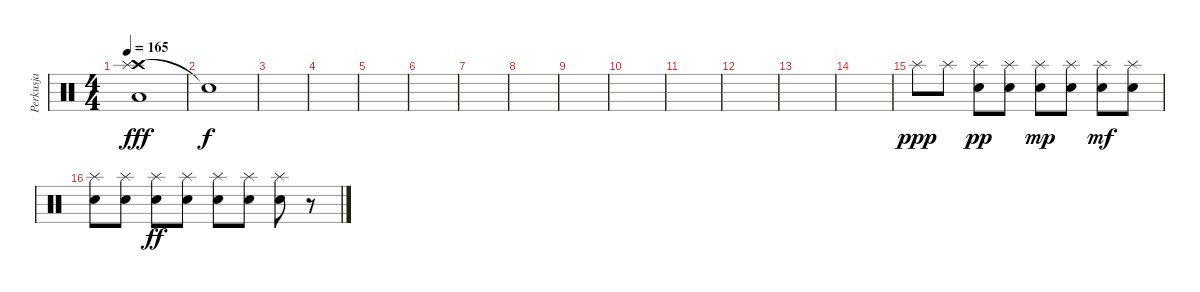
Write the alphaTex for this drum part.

\track ("Perkusja" "Perkusja") {instrument percussion}
\staff {score}
\articulation defaults
\ts (4 4)
\tempo 165
\clef neutral
\ks c
("Crash high (hit)" "Splash (hit)" "Low Tom (hit)").1{dy fff} |
"Snare (hit)"{t}.1{dy f} |
|
|
|
|
|
|
|
|
|
|
|
|
"Splash (hit)".8{dy ppp} "Splash (hit)".8 ("Splash (hit)" "Electric Snare (hit)").8{dy pp} ("Splash (hit)" "Electric Snare (hit)").8 ("Splash (hit)" "Electric Snare (hit)").8{dy mp} ("Splash (hit)" "Electric Snare (hit)").8 ("Splash (hit)" "Electric Snare (hit)").8{dy mf} ("Splash (hit)" "Electric Snare (hit)").8 |
("Splash (hit)" "Electric Snare (hit)").8 ("Splash (hit)" "Electric Snare (hit)").8 ("Splash (hit)" "Electric Snare (hit)").8{dy ff} ("Splash (hit)" "Electric Snare (hit)").8 ("Splash (hit)" "Electric Snare (hit)").8 ("Splash (hit)" "Electric Snare (hit)").8 ("Splash (hit)" "Electric Snare (hit)").8 r.8
